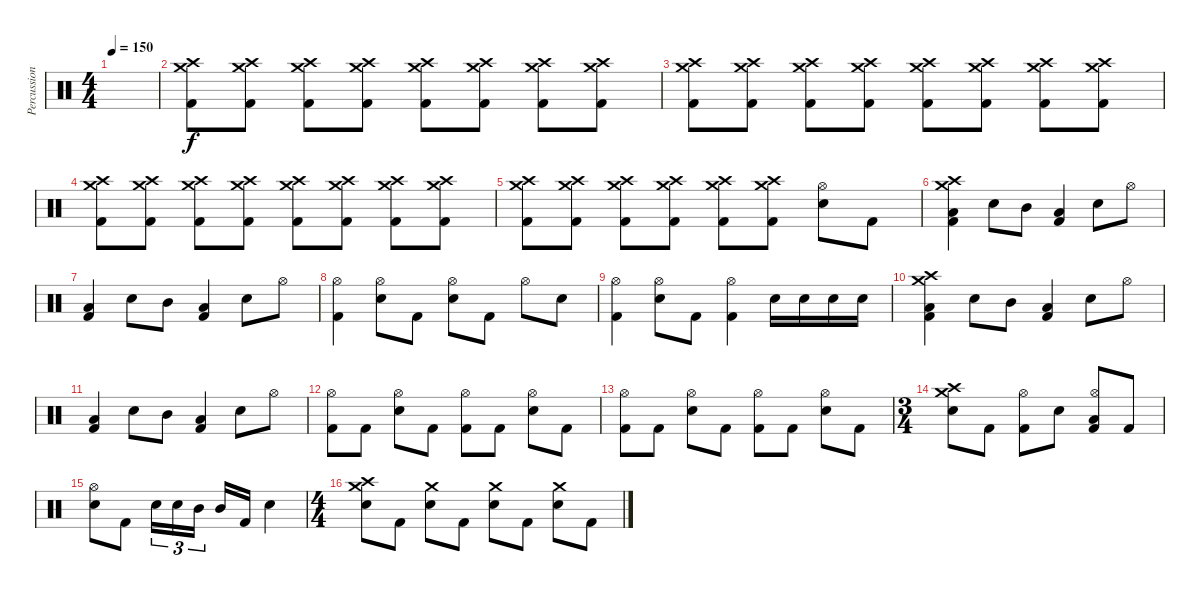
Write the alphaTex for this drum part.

\track ("Percussion" "Percussion") {instrument percussion}
\staff {score}
\articulation defaults
\ts (4 4)
\tempo 150
\clef neutral
\ks c
|
("Crash medium (hit)" "Crash high (hit)" "Kick (hit) 2").8 ("Crash medium (hit)" "Crash high (hit)" "Kick (hit) 2").8 ("Crash medium (hit)" "Crash high (hit)" "Kick (hit) 2").8 ("Crash medium (hit)" "Crash high (hit)" "Kick (hit) 2").8 ("Crash medium (hit)" "Crash high (hit)" "Kick (hit) 2").8 ("Crash medium (hit)" "Crash high (hit)" "Kick (hit) 2").8 ("Crash medium (hit)" "Crash high (hit)" "Kick (hit) 2").8 ("Crash medium (hit)" "Crash high (hit)" "Kick (hit) 2").8 |
("Crash medium (hit)" "Crash high (hit)" "Kick (hit) 2").8 ("Crash medium (hit)" "Crash high (hit)" "Kick (hit) 2").8 ("Crash medium (hit)" "Crash high (hit)" "Kick (hit) 2").8 ("Crash medium (hit)" "Crash high (hit)" "Kick (hit) 2").8 ("Crash medium (hit)" "Crash high (hit)" "Kick (hit) 2").8 ("Crash medium (hit)" "Crash high (hit)" "Kick (hit) 2").8 ("Crash medium (hit)" "Crash high (hit)" "Kick (hit) 2").8 ("Crash medium (hit)" "Crash high (hit)" "Kick (hit) 2").8 |
("Crash medium (hit)" "Crash high (hit)" "Kick (hit) 2").8 ("Crash medium (hit)" "Crash high (hit)" "Kick (hit) 2").8 ("Crash medium (hit)" "Crash high (hit)" "Kick (hit) 2").8 ("Crash medium (hit)" "Crash high (hit)" "Kick (hit) 2").8 ("Crash medium (hit)" "Crash high (hit)" "Kick (hit) 2").8 ("Crash medium (hit)" "Crash high (hit)" "Kick (hit) 2").8 ("Crash medium (hit)" "Crash high (hit)" "Kick (hit) 2").8 ("Crash medium (hit)" "Crash high (hit)" "Kick (hit) 2").8 |
("Crash medium (hit)" "Crash high (hit)" "Kick (hit) 2").8 ("Crash medium (hit)" "Crash high (hit)" "Kick (hit) 2").8 ("Crash medium (hit)" "Crash high (hit)" "Kick (hit) 2").8 ("Crash medium (hit)" "Crash high (hit)" "Kick (hit) 2").8 ("Crash medium (hit)" "Crash high (hit)" "Kick (hit) 2").8 ("Crash medium (hit)" "Crash high (hit)" "Kick (hit) 2").8 ("Hi-Hat (open)" "Snare (hit) 2").8 "Kick (hit) 2".8 |
("Crash medium (hit)" "Crash high (hit)" "Low Floor Tom (hit)" "Kick (hit) 2").4 "Snare (hit) 2".8 "Mid Tom (hit)".8 ("Low Floor Tom (hit)" "Kick (hit) 2").4 "Snare (hit) 2".8 "Hi-Hat (open)".8 |
("Low Floor Tom (hit)" "Kick (hit) 2").4 "Snare (hit) 2".8 "Mid Tom (hit)".8 ("Low Floor Tom (hit)" "Kick (hit) 2").4 "Snare (hit) 2".8 "Hi-Hat (open)".8 |
("Hi-Hat (open)" "Kick (hit) 2").4 ("Hi-Hat (open)" "Snare (hit) 2").8 "Kick (hit) 2".8 ("Hi-Hat (open)" "Snare (hit) 2").8 "Kick (hit) 2".8 "Hi-Hat (open)".8 "Snare (hit) 2".8 |
("Hi-Hat (open)" "Kick (hit) 2").4 ("Hi-Hat (open)" "Snare (hit) 2").8 "Kick (hit) 2".8 ("Hi-Hat (open)" "Kick (hit) 2").4 "Snare (hit) 2".16 "Snare (hit) 2".16 "Snare (hit) 2".16 "Snare (hit) 2".16 |
("Crash medium (hit)" "Crash high (hit)" "Low Floor Tom (hit)" "Kick (hit) 2").4 "Snare (hit) 2".8 "Mid Tom (hit)".8 ("Low Floor Tom (hit)" "Kick (hit) 2").4 "Snare (hit) 2".8 "Hi-Hat (open)".8 |
("Low Floor Tom (hit)" "Kick (hit) 2").4 "Snare (hit) 2".8 "Mid Tom (hit)".8 ("Low Floor Tom (hit)" "Kick (hit) 2").4 "Snare (hit) 2".8 "Hi-Hat (open)".8 |
("Hi-Hat (open)" "Kick (hit) 2").8 "Kick (hit) 2".8 ("Hi-Hat (open)" "Snare (hit) 2").8 "Kick (hit) 2".8 ("Hi-Hat (open)" "Kick (hit) 2").8 "Kick (hit) 2".8 ("Hi-Hat (open)" "Snare (hit) 2").8 "Kick (hit) 2".8 |
("Hi-Hat (open)" "Kick (hit) 2").8 "Kick (hit) 2".8 ("Hi-Hat (open)" "Snare (hit) 2").8 "Kick (hit) 2".8 ("Hi-Hat (open)" "Kick (hit) 2").8 "Kick (hit) 2".8 ("Hi-Hat (open)" "Snare (hit) 2").8 "Kick (hit) 2".8 |
\ts (3 4)
("Crash medium (hit)" "Crash high (hit)" "Snare (hit) 2").8 "Kick (hit) 2".8 ("Hi-Hat (open)" "Kick (hit) 2").8 "Snare (hit) 2".8 ("Hi-Hat (open)" "Low Floor Tom (hit)" "Kick (hit) 2").8 "Kick (hit) 2".8 |
("Hi-Hat (open)" "Snare (hit) 2").8 "Kick (hit) 2".8 "Snare (hit) 2".16{tu (3 2)} "Snare (hit) 2".16{tu (3 2)} "Mid Tom (hit)".16{tu (3 2)} "Mid Tom (hit)".16 "Kick (hit) 2".16 "Snare (hit) 2".4 |
\ts (4 4)
("Crash medium (hit)" "Crash high (hit)" "Snare (hit) 2").8 "Kick (hit) 2".8 ("Crash medium (hit)" "Snare (hit) 2").8 "Kick (hit) 2".8 ("Crash medium (hit)" "Snare (hit) 2").8 "Kick (hit) 2".8 ("Crash medium (hit)" "Snare (hit) 2").8 "Kick (hit) 2".8
